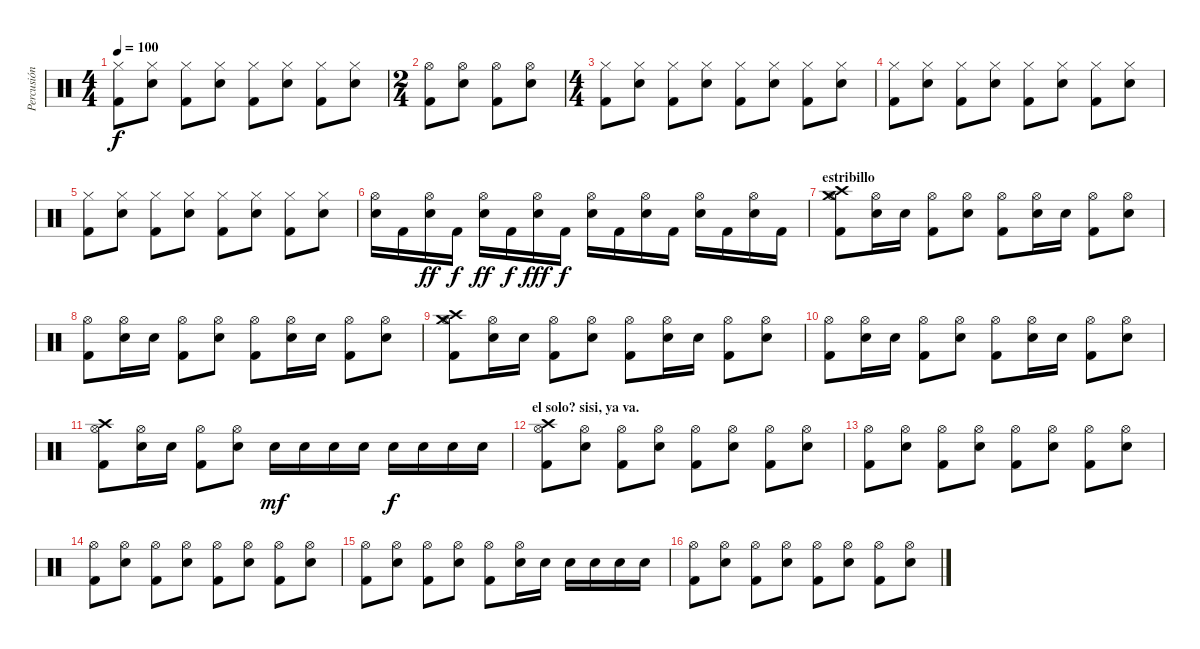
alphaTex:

\track ("Percusión" "Percusión") {instrument percussion}
\staff {score}
\articulation defaults
\ts (4 4)
\tempo 100
\clef neutral
\ks c
("Hi-Hat (closed)" "Kick (hit) 2").8{dy f} ("Hi-Hat (closed)" "Electric Snare (hit)").8 ("Hi-Hat (closed)" "Kick (hit) 2").8 ("Hi-Hat (closed)" "Electric Snare (hit)").8 ("Hi-Hat (closed)" "Kick (hit) 2").8 ("Hi-Hat (closed)" "Electric Snare (hit)").8 ("Hi-Hat (closed)" "Kick (hit) 2").8 ("Hi-Hat (closed)" "Electric Snare (hit)").8 |
\ts (2 4)
("Hi-Hat (open)" "Kick (hit) 2").8 ("Hi-Hat (open)" "Electric Snare (hit)").8 ("Hi-Hat (open)" "Kick (hit) 2").8 ("Hi-Hat (open)" "Electric Snare (hit)").8 |
\ts (4 4)
("Hi-Hat (closed)" "Kick (hit) 2").8 ("Hi-Hat (closed)" "Electric Snare (hit)").8 ("Hi-Hat (closed)" "Kick (hit) 2").8 ("Hi-Hat (closed)" "Electric Snare (hit)").8 ("Hi-Hat (closed)" "Kick (hit) 2").8 ("Hi-Hat (closed)" "Electric Snare (hit)").8 ("Hi-Hat (closed)" "Kick (hit) 2").8 ("Hi-Hat (closed)" "Electric Snare (hit)").8 |
("Hi-Hat (closed)" "Kick (hit) 2").8 ("Hi-Hat (closed)" "Electric Snare (hit)").8 ("Hi-Hat (closed)" "Kick (hit) 2").8 ("Hi-Hat (closed)" "Electric Snare (hit)").8 ("Hi-Hat (closed)" "Kick (hit) 2").8 ("Hi-Hat (closed)" "Electric Snare (hit)").8 ("Hi-Hat (closed)" "Kick (hit) 2").8 ("Hi-Hat (closed)" "Electric Snare (hit)").8 |
("Hi-Hat (closed)" "Kick (hit) 2").8 ("Hi-Hat (closed)" "Electric Snare (hit)").8 ("Hi-Hat (closed)" "Kick (hit) 2").8 ("Hi-Hat (closed)" "Electric Snare (hit)").8 ("Hi-Hat (closed)" "Kick (hit) 2").8 ("Hi-Hat (closed)" "Electric Snare (hit)").8 ("Hi-Hat (closed)" "Kick (hit) 2").8 ("Hi-Hat (closed)" "Electric Snare (hit)").8 |
("Hi-Hat (open)" "Electric Snare (hit)").16 "Kick (hit) 2".16 ("Hi-Hat (open)" "Electric Snare (hit)").16{dy ff} "Kick (hit) 2".16{dy f} ("Hi-Hat (open)" "Electric Snare (hit)").16{dy ff} "Kick (hit) 2".16{dy f} ("Hi-Hat (open)" "Electric Snare (hit)").16{dy fff} "Kick (hit) 2".16{dy f} ("Hi-Hat (open)" "Electric Snare (hit)").16 "Kick (hit) 2".16 ("Hi-Hat (open)" "Electric Snare (hit)").16 "Kick (hit) 2".16 ("Hi-Hat (open)" "Electric Snare (hit)").16 "Kick (hit) 2".16 ("Hi-Hat (open)" "Electric Snare (hit)").16 "Kick (hit) 2".16 |
\section ("" "estribillo")
("Crash high (hit)" "Hi-Hat (open)" "Crash medium (hit)" "Kick (hit) 2").8 ("Hi-Hat (open)" "Electric Snare (hit)").16 "Electric Snare (hit)".16 ("Hi-Hat (open)" "Kick (hit) 2").8 ("Hi-Hat (open)" "Electric Snare (hit)").8 ("Hi-Hat (open)" "Kick (hit) 2").8 ("Hi-Hat (open)" "Electric Snare (hit)").16 "Electric Snare (hit)".16 ("Hi-Hat (open)" "Kick (hit) 2").8 ("Hi-Hat (open)" "Electric Snare (hit)").8 |
("Hi-Hat (open)" "Kick (hit) 2").8 ("Hi-Hat (open)" "Electric Snare (hit)").16 "Electric Snare (hit)".16 ("Hi-Hat (open)" "Kick (hit) 2").8 ("Hi-Hat (open)" "Electric Snare (hit)").8 ("Hi-Hat (open)" "Kick (hit) 2").8 ("Hi-Hat (open)" "Electric Snare (hit)").16 "Electric Snare (hit)".16 ("Hi-Hat (open)" "Kick (hit) 2").8 ("Hi-Hat (open)" "Electric Snare (hit)").8 |
("Crash high (hit)" "Hi-Hat (open)" "Crash medium (hit)" "Kick (hit) 2").8 ("Hi-Hat (open)" "Electric Snare (hit)").16 "Electric Snare (hit)".16 ("Hi-Hat (open)" "Kick (hit) 2").8 ("Hi-Hat (open)" "Electric Snare (hit)").8 ("Hi-Hat (open)" "Kick (hit) 2").8 ("Hi-Hat (open)" "Electric Snare (hit)").16 "Electric Snare (hit)".16 ("Hi-Hat (open)" "Kick (hit) 2").8 ("Hi-Hat (open)" "Electric Snare (hit)").8 |
("Hi-Hat (open)" "Kick (hit) 2").8 ("Hi-Hat (open)" "Electric Snare (hit)").16 "Electric Snare (hit)".16 ("Hi-Hat (open)" "Kick (hit) 2").8 ("Hi-Hat (open)" "Electric Snare (hit)").8 ("Hi-Hat (open)" "Kick (hit) 2").8 ("Hi-Hat (open)" "Electric Snare (hit)").16 "Electric Snare (hit)".16 ("Hi-Hat (open)" "Kick (hit) 2").8 ("Hi-Hat (open)" "Electric Snare (hit)").8 |
("Crash high (hit)" "Hi-Hat (open)" "Kick (hit) 2").8 ("Hi-Hat (open)" "Electric Snare (hit)").16 "Electric Snare (hit)".16 ("Hi-Hat (open)" "Kick (hit) 2").8 ("Hi-Hat (open)" "Electric Snare (hit)").8 "Electric Snare (hit)".16{dy mf} "Electric Snare (hit)".16 "Electric Snare (hit)".16 "Electric Snare (hit)".16 "Electric Snare (hit)".16{dy f} "Electric Snare (hit)".16 "Electric Snare (hit)".16 "Electric Snare (hit)".16 |
\section ("" "el solo? sisi, ya va.")
("Crash high (hit)" "Hi-Hat (open)" "Kick (hit) 2").8 ("Hi-Hat (open)" "Electric Snare (hit)").8 ("Hi-Hat (open)" "Kick (hit) 2").8 ("Hi-Hat (open)" "Electric Snare (hit)").8 ("Hi-Hat (open)" "Kick (hit) 2").8 ("Hi-Hat (open)" "Electric Snare (hit)").8 ("Hi-Hat (open)" "Kick (hit) 2").8 ("Hi-Hat (open)" "Electric Snare (hit)").8 |
("Hi-Hat (open)" "Kick (hit) 2").8 ("Hi-Hat (open)" "Electric Snare (hit)").8 ("Hi-Hat (open)" "Kick (hit) 2").8 ("Hi-Hat (open)" "Electric Snare (hit)").8 ("Hi-Hat (open)" "Kick (hit) 2").8 ("Hi-Hat (open)" "Electric Snare (hit)").8 ("Hi-Hat (open)" "Kick (hit) 2").8 ("Hi-Hat (open)" "Electric Snare (hit)").8 |
("Hi-Hat (open)" "Kick (hit) 2").8 ("Hi-Hat (open)" "Electric Snare (hit)").8 ("Hi-Hat (open)" "Kick (hit) 2").8 ("Hi-Hat (open)" "Electric Snare (hit)").8 ("Hi-Hat (open)" "Kick (hit) 2").8 ("Hi-Hat (open)" "Electric Snare (hit)").8 ("Hi-Hat (open)" "Kick (hit) 2").8 ("Hi-Hat (open)" "Electric Snare (hit)").8 |
("Hi-Hat (open)" "Kick (hit) 2").8 ("Hi-Hat (open)" "Electric Snare (hit)").8 ("Hi-Hat (open)" "Kick (hit) 2").8 ("Hi-Hat (open)" "Electric Snare (hit)").8 ("Hi-Hat (open)" "Kick (hit) 2").8 ("Hi-Hat (open)" "Electric Snare (hit)").16 "Electric Snare (hit)".16 "Electric Snare (hit)".16 "Electric Snare (hit)".16 "Electric Snare (hit)".16 "Electric Snare (hit)".16 |
("Hi-Hat (open)" "Kick (hit) 2").8 ("Hi-Hat (open)" "Electric Snare (hit)").8 ("Hi-Hat (open)" "Kick (hit) 2").8 ("Hi-Hat (open)" "Electric Snare (hit)").8 ("Hi-Hat (open)" "Kick (hit) 2").8 ("Hi-Hat (open)" "Electric Snare (hit)").8 ("Hi-Hat (open)" "Kick (hit) 2").8 ("Hi-Hat (open)" "Electric Snare (hit)").8
